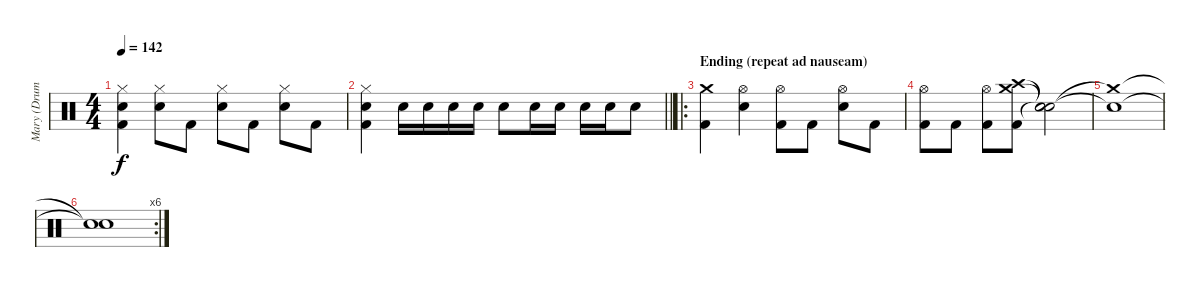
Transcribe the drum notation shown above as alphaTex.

\track ("Mary (Drums)" "Mary (Drum") {instrument percussion}
\staff {score}
\articulation defaults
\ts (4 4)
\tempo 142
\clef neutral
\ks c
("Hi-Hat (closed)" "Snare (hit) 2" "Kick (hit) 2").4{dy f} ("Hi-Hat (closed)" "Snare (hit) 2").8 "Kick (hit) 2".8 ("Hi-Hat (closed)" "Snare (hit) 2").8 "Kick (hit) 2".8 ("Hi-Hat (closed)" "Snare (hit) 2").8 "Kick (hit) 2".8 |
\barLineRight lightlight
("Hi-Hat (closed)" "Snare (hit) 2" "Kick (hit) 2").4 "Snare (hit) 2".16 "Snare (hit) 2".16 "Snare (hit) 2".16 "Snare (hit) 2".16 "Snare (hit) 2".8 "Snare (hit) 2".16 "Snare (hit) 2".16 "Snare (hit) 2".16 "Snare (hit) 2".16 "Snare (hit) 2".8 |
\ro
\section ("" "Ending (repeat ad nauseam)")
("Crash medium (hit)" "Kick (hit) 2").4 ("Hi-Hat (open)" "Snare (hit) 2").4 ("Hi-Hat (open)" "Kick (hit) 2").8 "Kick (hit) 2".8 ("Hi-Hat (open)" "Snare (hit) 2").8 "Kick (hit) 2".8 |
("Hi-Hat (open)" "Kick (hit) 2").8 "Kick (hit) 2".8 ("Hi-Hat (open)" "Kick (hit) 2").8 ("Crash high (hit)" "Crash medium (hit)" "Kick (hit) 2").8 ("Snare (hit)"{t} "Snare (hit)"{t} "Snare (hit)"{t}).2 |
("Crash medium (hit)"{t} "Snare (hit)"{t}).1 |
\rc 6
("Snare (hit)"{t} "Snare (hit)"{t}).1
